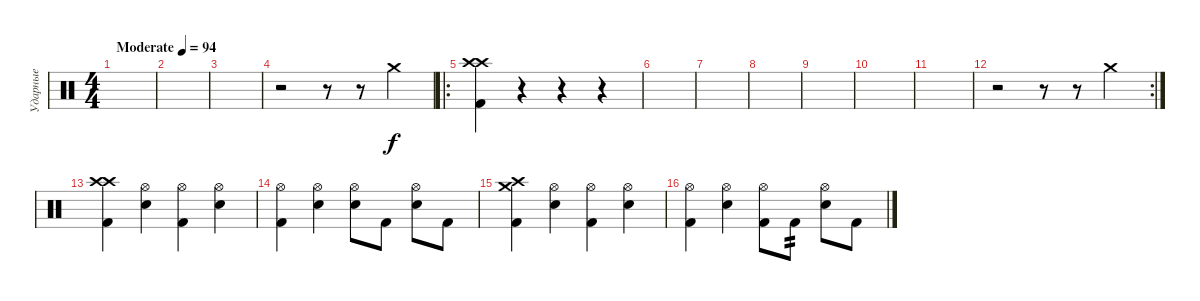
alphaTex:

\track ("Ударные" "Ударные") {instrument percussion}
\staff {score}
\articulation defaults
\ts (4 4)
\tempo (94 "Moderate")
\clef neutral
\ks c
|
|
|
r.2 r.8 r.8 "Crash medium (hit)".4 |
\ro
("Crash high (hit)" "Crash high (hit)" "Kick (hit) 2").4 r.4 r.4 r.4 |
|
|
|
|
|
|
\rc 2
r.2 r.8 r.8 "Crash medium (hit)".4 |
("Crash high (hit)" "Crash high (hit)" "Kick (hit) 2").4 ("Hi-Hat (open)" "Electric Snare (hit)").4 ("Hi-Hat (open)" "Kick (hit) 2").4 ("Hi-Hat (open)" "Electric Snare (hit)").4 |
("Hi-Hat (open)" "Kick (hit) 2").4 ("Hi-Hat (open)" "Electric Snare (hit)").4 ("Hi-Hat (open)" "Electric Snare (hit)").8 "Kick (hit) 2".8 ("Hi-Hat (open)" "Electric Snare (hit)").8 "Kick (hit) 2".8 |
("Crash medium (hit)" "Crash high (hit)" "Kick (hit) 2").4 ("Hi-Hat (open)" "Electric Snare (hit)").4 ("Hi-Hat (open)" "Kick (hit) 2").4 ("Hi-Hat (open)" "Electric Snare (hit)").4 |
("Hi-Hat (open)" "Kick (hit) 2").4 ("Hi-Hat (open)" "Electric Snare (hit)").4 ("Hi-Hat (open)" "Kick (hit) 2").8 "Kick (hit) 2".8{tp 2} ("Hi-Hat (open)" "Electric Snare (hit)").8 "Kick (hit) 2".8
